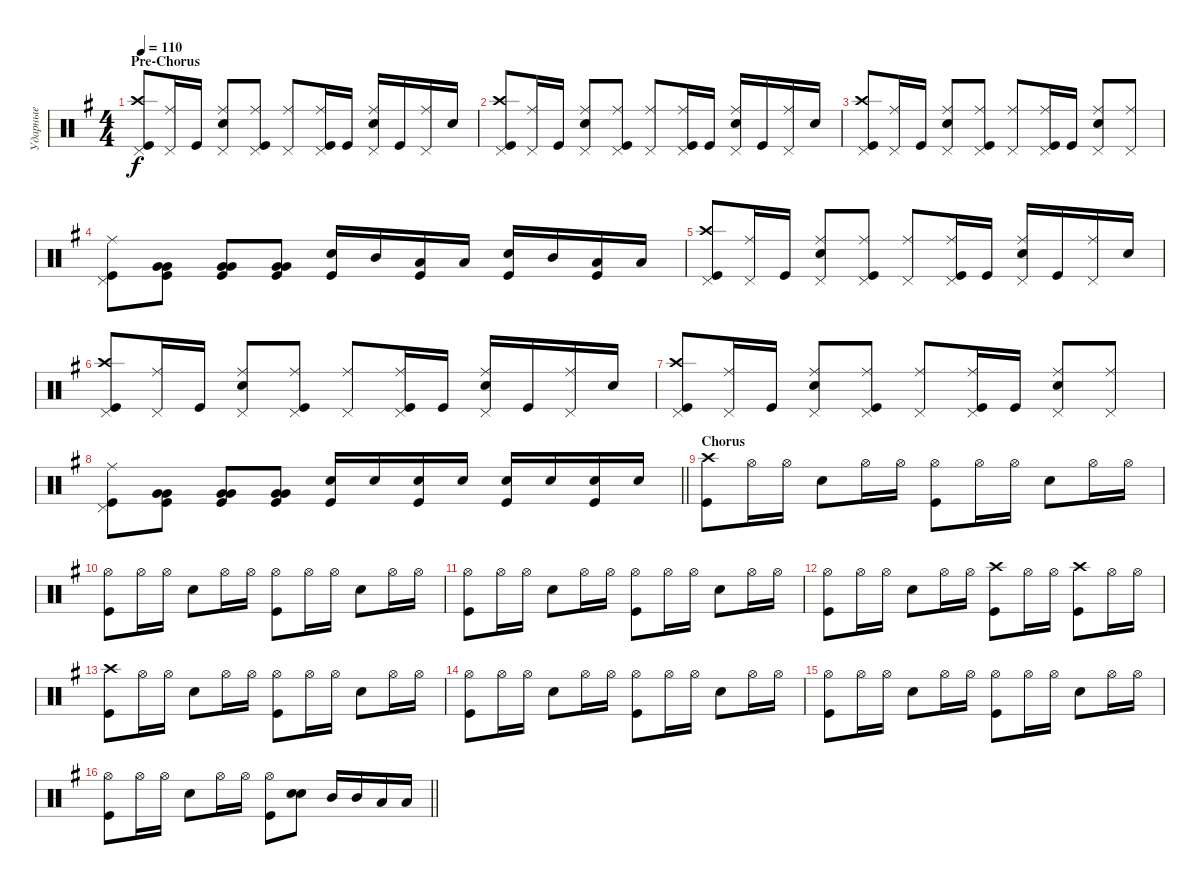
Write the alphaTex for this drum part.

\track ("Ударные" "Ударные") {instrument percussion}
\staff {score}
\articulation defaults
\ts (4 4)
\section ("" "Pre-Chorus")
\tempo 110
\clef neutral
\ks eminor
("Kick (hit)" "Crash high (hit)" "Pedal Hi-Hat (hit)").8{dy f} ("Ride (middle)" "Pedal Hi-Hat (hit)").16 "Kick (hit)".16 ("Snare (hit) 2" "Ride (middle)" "Pedal Hi-Hat (hit)").8 ("Kick (hit)" "Ride (middle)" "Pedal Hi-Hat (hit)").8 ("Ride (middle)" "Pedal Hi-Hat (hit)").8 ("Kick (hit)" "Ride (middle)" "Pedal Hi-Hat (hit)").16 "Kick (hit)".16 ("Snare (hit) 2" "Ride (middle)" "Pedal Hi-Hat (hit)").16 "Kick (hit)".16 ("Ride (middle)" "Pedal Hi-Hat (hit)").16 "Snare (hit) 2".16 |
("Kick (hit)" "Crash high (hit)" "Pedal Hi-Hat (hit)").8 ("Ride (middle)" "Pedal Hi-Hat (hit)").16 "Kick (hit)".16 ("Snare (hit) 2" "Ride (middle)" "Pedal Hi-Hat (hit)").8 ("Kick (hit)" "Ride (middle)" "Pedal Hi-Hat (hit)").8 ("Ride (middle)" "Pedal Hi-Hat (hit)").8 ("Kick (hit)" "Ride (middle)" "Pedal Hi-Hat (hit)").16 "Kick (hit)".16 ("Snare (hit) 2" "Ride (middle)" "Pedal Hi-Hat (hit)").16 "Kick (hit)".16 ("Ride (middle)" "Pedal Hi-Hat (hit)").16 "Snare (hit) 2".16 |
("Kick (hit)" "Crash high (hit)" "Pedal Hi-Hat (hit)").8 ("Ride (middle)" "Pedal Hi-Hat (hit)").16 "Kick (hit)".16 ("Snare (hit) 2" "Ride (middle)" "Pedal Hi-Hat (hit)").8 ("Kick (hit)" "Ride (middle)" "Pedal Hi-Hat (hit)").8 ("Ride (middle)" "Pedal Hi-Hat (hit)").8 ("Kick (hit)" "Ride (middle)" "Pedal Hi-Hat (hit)").16 "Kick (hit)".16 ("Snare (hit) 2" "Ride (middle)" "Pedal Hi-Hat (hit)").8 ("Ride (middle)" "Pedal Hi-Hat (hit)").8 |
("Kick (hit)" "Pedal Hi-Hat (hit)" "Ride (middle)").8 ("Very Low Tom (hit)" "Very Low Tom (hit)" "Kick (hit)").8{bd 120} ("Kick (hit)" "Very Low Tom (hit)" "Very Low Tom (hit)").8{bd 120} ("Very Low Tom (hit)" "Very Low Tom (hit)" "Kick (hit)").8{bd 480} ("Snare (hit) 2" "Kick (hit)").16 "Mid Tom (hit)".16 ("Kick (hit)" "Low Tom (hit)").16 "Low Tom (hit)".16 ("Snare (hit) 2" "Kick (hit)").16 "Mid Tom (hit)".16 ("Kick (hit)" "Low Tom (hit)").16 "Low Tom (hit)".16 |
("Kick (hit)" "Crash high (hit)" "Pedal Hi-Hat (hit)").8 ("Ride (middle)" "Pedal Hi-Hat (hit)").16 "Kick (hit)".16 ("Snare (hit) 2" "Ride (middle)" "Pedal Hi-Hat (hit)").8 ("Kick (hit)" "Ride (middle)" "Pedal Hi-Hat (hit)").8 ("Ride (middle)" "Pedal Hi-Hat (hit)").8 ("Kick (hit)" "Ride (middle)" "Pedal Hi-Hat (hit)").16 "Kick (hit)".16 ("Snare (hit) 2" "Ride (middle)" "Pedal Hi-Hat (hit)").16 "Kick (hit)".16 ("Ride (middle)" "Pedal Hi-Hat (hit)").16 "Snare (hit) 2".16 |
("Kick (hit)" "Crash high (hit)" "Pedal Hi-Hat (hit)").8 ("Ride (middle)" "Pedal Hi-Hat (hit)").16 "Kick (hit)".16 ("Snare (hit) 2" "Ride (middle)" "Pedal Hi-Hat (hit)").8 ("Kick (hit)" "Ride (middle)" "Pedal Hi-Hat (hit)").8 ("Ride (middle)" "Pedal Hi-Hat (hit)").8 ("Kick (hit)" "Ride (middle)" "Pedal Hi-Hat (hit)").16 "Kick (hit)".16 ("Snare (hit) 2" "Ride (middle)" "Pedal Hi-Hat (hit)").16 "Kick (hit)".16 ("Ride (middle)" "Pedal Hi-Hat (hit)").16 "Snare (hit) 2".16 |
("Kick (hit)" "Crash high (hit)" "Pedal Hi-Hat (hit)").8 ("Ride (middle)" "Pedal Hi-Hat (hit)").16 "Kick (hit)".16 ("Snare (hit) 2" "Ride (middle)" "Pedal Hi-Hat (hit)").8 ("Kick (hit)" "Ride (middle)" "Pedal Hi-Hat (hit)").8 ("Ride (middle)" "Pedal Hi-Hat (hit)").8 ("Kick (hit)" "Ride (middle)" "Pedal Hi-Hat (hit)").16 "Kick (hit)".16 ("Snare (hit) 2" "Ride (middle)" "Pedal Hi-Hat (hit)").8 ("Ride (middle)" "Pedal Hi-Hat (hit)").8 |
\barLineRight lightlight
("Kick (hit)" "Pedal Hi-Hat (hit)" "Ride (middle)").8 ("Very Low Tom (hit)" "Very Low Tom (hit)" "Kick (hit)").8{bd 120} ("Kick (hit)" "Very Low Tom (hit)" "Very Low Tom (hit)").8{bd 120} ("Very Low Tom (hit)" "Very Low Tom (hit)" "Kick (hit)").8{bd 480} ("Snare (hit) 2" "Kick (hit)").16 "Snare (hit) 2".16 ("Kick (hit)" "Snare (hit) 2").16 "Snare (hit) 2".16 ("Snare (hit) 2" "Kick (hit)").16 "Snare (hit) 2".16 ("Snare (hit) 2" "Kick (hit)").16 "Snare (hit) 2".16 |
\section ("" "Chorus")
("Kick (hit)" "Crash high (hit)").8 "Hi-Hat (open)".16 "Hi-Hat (open)".16 "Snare (hit) 2".8 "Hi-Hat (open)".16 "Hi-Hat (open)".16 ("Kick (hit)" "Hi-Hat (open)").8 "Hi-Hat (open)".16 "Hi-Hat (open)".16 "Snare (hit) 2".8 "Hi-Hat (open)".16 "Hi-Hat (open)".16 |
("Kick (hit)" "Hi-Hat (open)").8 "Hi-Hat (open)".16 "Hi-Hat (open)".16 "Snare (hit) 2".8 "Hi-Hat (open)".16 "Hi-Hat (open)".16 ("Kick (hit)" "Hi-Hat (open)").8 "Hi-Hat (open)".16 "Hi-Hat (open)".16 "Snare (hit) 2".8 "Hi-Hat (open)".16 "Hi-Hat (open)".16 |
("Kick (hit)" "Hi-Hat (open)").8 "Hi-Hat (open)".16 "Hi-Hat (open)".16 "Snare (hit) 2".8 "Hi-Hat (open)".16 "Hi-Hat (open)".16 ("Kick (hit)" "Hi-Hat (open)").8 "Hi-Hat (open)".16 "Hi-Hat (open)".16 "Snare (hit) 2".8 "Hi-Hat (open)".16 "Hi-Hat (open)".16 |
("Kick (hit)" "Hi-Hat (open)").8 "Hi-Hat (open)".16 "Hi-Hat (open)".16 "Snare (hit) 2".8 "Hi-Hat (open)".16 "Hi-Hat (open)".16 ("Kick (hit)" "Crash high (hit)").8 "Hi-Hat (open)".16 "Hi-Hat (open)".16 ("Kick (hit)" "Crash high (hit)").8 "Hi-Hat (open)".16 "Hi-Hat (open)".16 |
("Kick (hit)" "Crash high (hit)").8 "Hi-Hat (open)".16 "Hi-Hat (open)".16 "Snare (hit) 2".8 "Hi-Hat (open)".16 "Hi-Hat (open)".16 ("Kick (hit)" "Hi-Hat (open)").8 "Hi-Hat (open)".16 "Hi-Hat (open)".16 "Snare (hit) 2".8 "Hi-Hat (open)".16 "Hi-Hat (open)".16 |
("Kick (hit)" "Hi-Hat (open)").8 "Hi-Hat (open)".16 "Hi-Hat (open)".16 "Snare (hit) 2".8 "Hi-Hat (open)".16 "Hi-Hat (open)".16 ("Kick (hit)" "Hi-Hat (open)").8 "Hi-Hat (open)".16 "Hi-Hat (open)".16 "Snare (hit) 2".8 "Hi-Hat (open)".16 "Hi-Hat (open)".16 |
("Kick (hit)" "Hi-Hat (open)").8 "Hi-Hat (open)".16 "Hi-Hat (open)".16 "Snare (hit) 2".8 "Hi-Hat (open)".16 "Hi-Hat (open)".16 ("Kick (hit)" "Hi-Hat (open)").8 "Hi-Hat (open)".16 "Hi-Hat (open)".16 "Snare (hit) 2".8 "Hi-Hat (open)".16 "Hi-Hat (open)".16 |
\barLineRight lightlight
("Kick (hit)" "Hi-Hat (open)").8 "Hi-Hat (open)".16 "Hi-Hat (open)".16 "Snare (hit) 2".8 "Hi-Hat (open)".16 "Hi-Hat (open)".16 ("Kick (hit)" "Hi-Hat (open)").8 ("Snare (hit) 2" "Snare (hit) 2").8{bd 120} "Mid Tom (hit)".16 "Mid Tom (hit)".16 "Low Tom (hit)".16 "Low Tom (hit)".16
